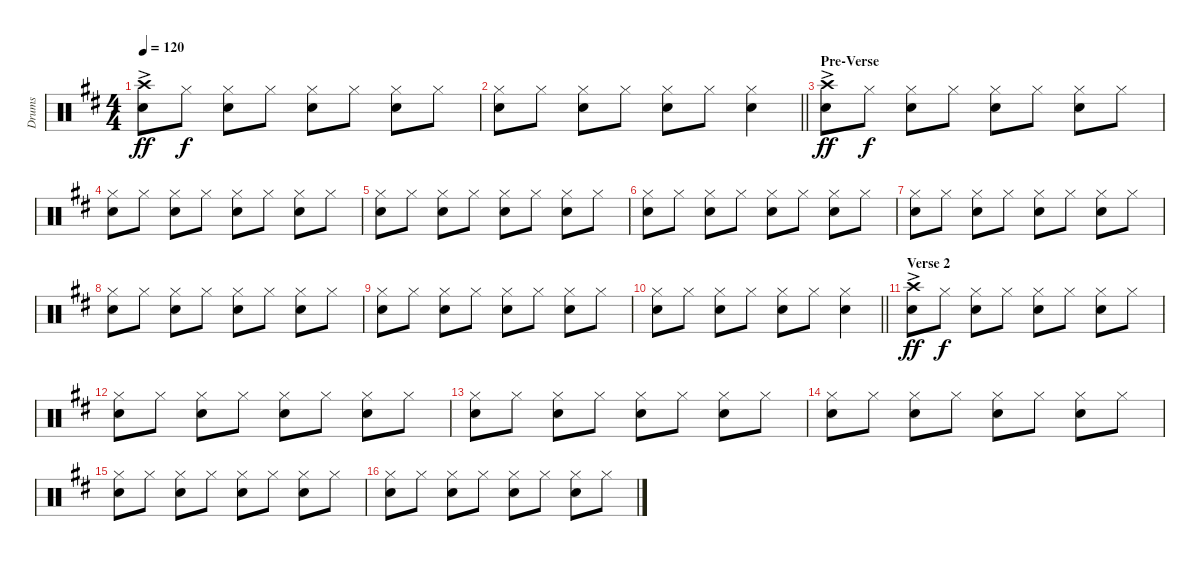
\track ("Drums" "Drums") {instrument percussion}
\staff {score}
\articulation defaults
\ts (4 4)
\tempo 120
\clef neutral
\ks d
("Crash high (hit)"{ac} "Snare (hit) 2").8{dy ff} "Hi-Hat (closed)".8{dy f} ("Hi-Hat (closed)" "Snare (hit) 2").8 "Hi-Hat (closed)".8 ("Hi-Hat (closed)" "Snare (hit) 2").8 "Hi-Hat (closed)".8 ("Hi-Hat (closed)" "Snare (hit) 2").8 "Hi-Hat (closed)".8 |
\barLineRight lightlight
("Hi-Hat (closed)" "Snare (hit) 2").8 "Hi-Hat (closed)".8 ("Hi-Hat (closed)" "Snare (hit) 2").8 "Hi-Hat (closed)".8 ("Hi-Hat (closed)" "Snare (hit) 2").8 "Hi-Hat (closed)".8 ("Hi-Hat (closed)" "Snare (hit) 2").4 |
\section ("" "Pre-Verse")
("Crash high (hit)"{ac} "Snare (hit) 2").8{dy ff} "Hi-Hat (closed)".8{dy f} ("Hi-Hat (closed)" "Snare (hit) 2").8 "Hi-Hat (closed)".8 ("Hi-Hat (closed)" "Snare (hit) 2").8 "Hi-Hat (closed)".8 ("Hi-Hat (closed)" "Snare (hit) 2").8 "Hi-Hat (closed)".8 |
("Hi-Hat (closed)" "Snare (hit) 2").8 "Hi-Hat (closed)".8 ("Hi-Hat (closed)" "Snare (hit) 2").8 "Hi-Hat (closed)".8 ("Hi-Hat (closed)" "Snare (hit) 2").8 "Hi-Hat (closed)".8 ("Hi-Hat (closed)" "Snare (hit) 2").8 "Hi-Hat (closed)".8 |
("Hi-Hat (closed)" "Snare (hit) 2").8 "Hi-Hat (closed)".8 ("Hi-Hat (closed)" "Snare (hit) 2").8 "Hi-Hat (closed)".8 ("Hi-Hat (closed)" "Snare (hit) 2").8 "Hi-Hat (closed)".8 ("Hi-Hat (closed)" "Snare (hit) 2").8 "Hi-Hat (closed)".8 |
("Hi-Hat (closed)" "Snare (hit) 2").8 "Hi-Hat (closed)".8 ("Hi-Hat (closed)" "Snare (hit) 2").8 "Hi-Hat (closed)".8 ("Hi-Hat (closed)" "Snare (hit) 2").8 "Hi-Hat (closed)".8 ("Hi-Hat (closed)" "Snare (hit) 2").8 "Hi-Hat (closed)".8 |
("Hi-Hat (closed)" "Snare (hit) 2").8 "Hi-Hat (closed)".8 ("Hi-Hat (closed)" "Snare (hit) 2").8 "Hi-Hat (closed)".8 ("Hi-Hat (closed)" "Snare (hit) 2").8 "Hi-Hat (closed)".8 ("Hi-Hat (closed)" "Snare (hit) 2").8 "Hi-Hat (closed)".8 |
("Hi-Hat (closed)" "Snare (hit) 2").8 "Hi-Hat (closed)".8 ("Hi-Hat (closed)" "Snare (hit) 2").8 "Hi-Hat (closed)".8 ("Hi-Hat (closed)" "Snare (hit) 2").8 "Hi-Hat (closed)".8 ("Hi-Hat (closed)" "Snare (hit) 2").8 "Hi-Hat (closed)".8 |
("Hi-Hat (closed)" "Snare (hit) 2").8 "Hi-Hat (closed)".8 ("Hi-Hat (closed)" "Snare (hit) 2").8 "Hi-Hat (closed)".8 ("Hi-Hat (closed)" "Snare (hit) 2").8 "Hi-Hat (closed)".8 ("Hi-Hat (closed)" "Snare (hit) 2").8 "Hi-Hat (closed)".8 |
\barLineRight lightlight
("Hi-Hat (closed)" "Snare (hit) 2").8 "Hi-Hat (closed)".8 ("Hi-Hat (closed)" "Snare (hit) 2").8 "Hi-Hat (closed)".8 ("Hi-Hat (closed)" "Snare (hit) 2").8 "Hi-Hat (closed)".8 ("Hi-Hat (closed)" "Snare (hit) 2").4 |
\section ("" "Verse 2")
("Crash high (hit)"{ac} "Snare (hit) 2").8{dy ff} "Hi-Hat (closed)".8{dy f} ("Hi-Hat (closed)" "Snare (hit) 2").8 "Hi-Hat (closed)".8 ("Hi-Hat (closed)" "Snare (hit) 2").8 "Hi-Hat (closed)".8 ("Hi-Hat (closed)" "Snare (hit) 2").8 "Hi-Hat (closed)".8 |
("Hi-Hat (closed)" "Snare (hit) 2").8 "Hi-Hat (closed)".8 ("Hi-Hat (closed)" "Snare (hit) 2").8 "Hi-Hat (closed)".8 ("Hi-Hat (closed)" "Snare (hit) 2").8 "Hi-Hat (closed)".8 ("Hi-Hat (closed)" "Snare (hit) 2").8 "Hi-Hat (closed)".8 |
("Hi-Hat (closed)" "Snare (hit) 2").8 "Hi-Hat (closed)".8 ("Hi-Hat (closed)" "Snare (hit) 2").8 "Hi-Hat (closed)".8 ("Hi-Hat (closed)" "Snare (hit) 2").8 "Hi-Hat (closed)".8 ("Hi-Hat (closed)" "Snare (hit) 2").8 "Hi-Hat (closed)".8 |
("Hi-Hat (closed)" "Snare (hit) 2").8 "Hi-Hat (closed)".8 ("Hi-Hat (closed)" "Snare (hit) 2").8 "Hi-Hat (closed)".8 ("Hi-Hat (closed)" "Snare (hit) 2").8 "Hi-Hat (closed)".8 ("Hi-Hat (closed)" "Snare (hit) 2").8 "Hi-Hat (closed)".8 |
("Hi-Hat (closed)" "Snare (hit) 2").8 "Hi-Hat (closed)".8 ("Hi-Hat (closed)" "Snare (hit) 2").8 "Hi-Hat (closed)".8 ("Hi-Hat (closed)" "Snare (hit) 2").8 "Hi-Hat (closed)".8 ("Hi-Hat (closed)" "Snare (hit) 2").8 "Hi-Hat (closed)".8 |
("Hi-Hat (closed)" "Snare (hit) 2").8 "Hi-Hat (closed)".8 ("Hi-Hat (closed)" "Snare (hit) 2").8 "Hi-Hat (closed)".8 ("Hi-Hat (closed)" "Snare (hit) 2").8 "Hi-Hat (closed)".8 ("Hi-Hat (closed)" "Snare (hit) 2").8 "Hi-Hat (closed)".8
